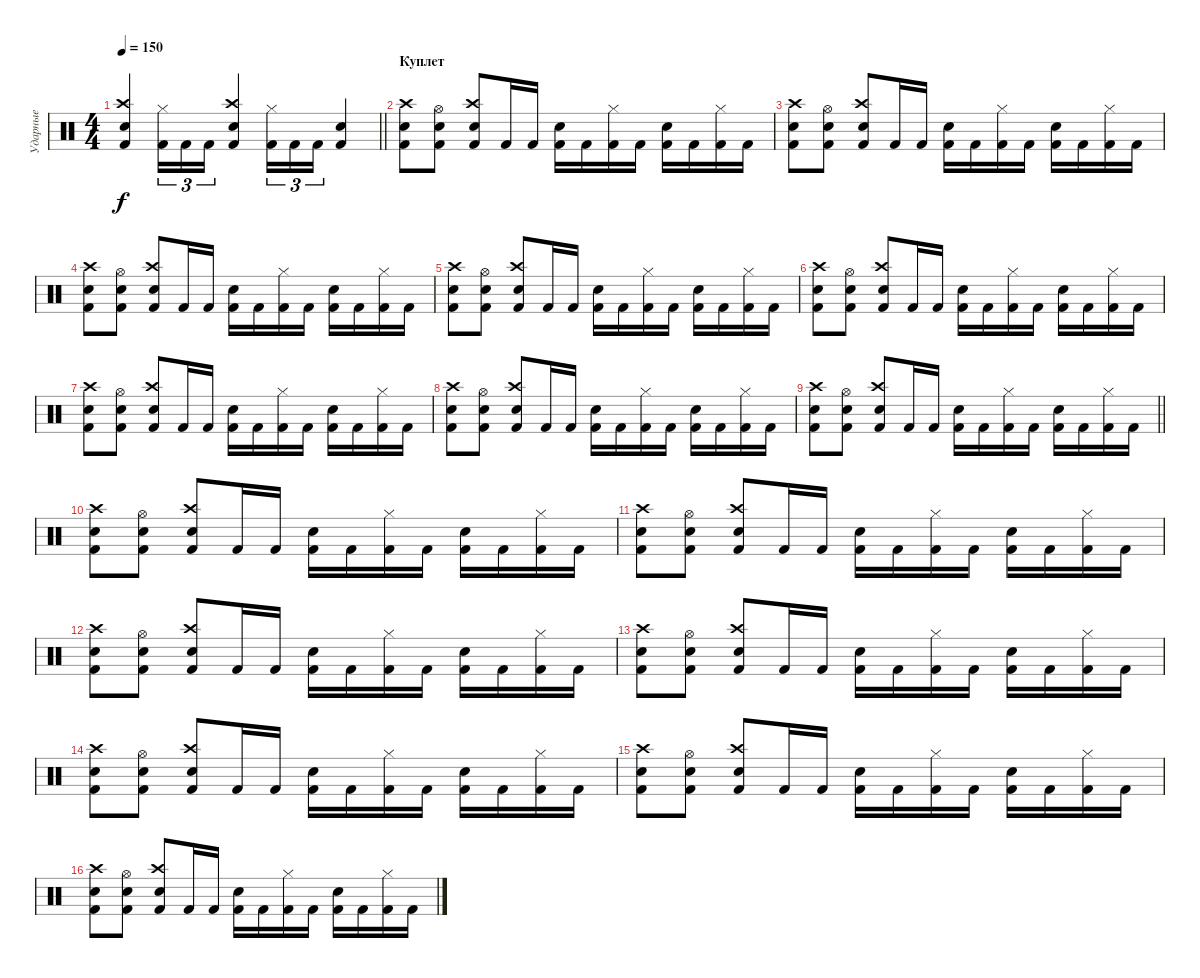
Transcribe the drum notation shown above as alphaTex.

\track ("Ударные" "Ударные") {instrument percussion}
\staff {score}
\articulation defaults
\ts (4 4)
\tempo 150
\clef neutral
\barLineRight lightlight
\ks c
("Kick (hit) 2" "Crash high (hit)" "Snare (hit) 2").4{dy f} ("Hi-Hat (closed)" "Kick (hit) 2").16{tu (3 2)} "Kick (hit) 2".16{tu (3 2)} "Kick (hit) 2".16{tu (3 2)} ("Crash high (hit)" "Snare (hit) 2" "Kick (hit) 2").4 ("Hi-Hat (closed)" "Kick (hit) 2").16{tu (3 2)} "Kick (hit) 2".16{tu (3 2)} "Kick (hit) 2".16{tu (3 2)} ("Snare (hit) 2" "Kick (hit) 2").4 |
\section ("" "Куплет")
("Snare (hit) 2" "Crash high (hit)" "Kick (hit) 2").8 ("Hi-Hat (open)" "Snare (hit) 2" "Kick (hit) 2").8 ("Kick (hit) 2" "Snare (hit) 2" "Crash high (hit)").8 "Kick (hit) 2".16 "Kick (hit) 2".16 ("Snare (hit) 2" "Kick (hit) 2").16 "Kick (hit) 2".16 ("Hi-Hat (closed)" "Kick (hit) 2").16 "Kick (hit) 2".16 ("Snare (hit) 2" "Kick (hit) 2").16 "Kick (hit) 2".16 ("Hi-Hat (closed)" "Kick (hit) 2").16 "Kick (hit) 2".16 |
("Snare (hit) 2" "Crash high (hit)" "Kick (hit) 2").8 ("Hi-Hat (open)" "Snare (hit) 2" "Kick (hit) 2").8 ("Kick (hit) 2" "Snare (hit) 2" "Crash high (hit)").8 "Kick (hit) 2".16 "Kick (hit) 2".16 ("Snare (hit) 2" "Kick (hit) 2").16 "Kick (hit) 2".16 ("Hi-Hat (closed)" "Kick (hit) 2").16 "Kick (hit) 2".16 ("Snare (hit) 2" "Kick (hit) 2").16 "Kick (hit) 2".16 ("Hi-Hat (closed)" "Kick (hit) 2").16 "Kick (hit) 2".16 |
("Snare (hit) 2" "Crash high (hit)" "Kick (hit) 2").8 ("Hi-Hat (open)" "Snare (hit) 2" "Kick (hit) 2").8 ("Kick (hit) 2" "Snare (hit) 2" "Crash high (hit)").8 "Kick (hit) 2".16 "Kick (hit) 2".16 ("Snare (hit) 2" "Kick (hit) 2").16 "Kick (hit) 2".16 ("Hi-Hat (closed)" "Kick (hit) 2").16 "Kick (hit) 2".16 ("Snare (hit) 2" "Kick (hit) 2").16 "Kick (hit) 2".16 ("Hi-Hat (closed)" "Kick (hit) 2").16 "Kick (hit) 2".16 |
("Snare (hit) 2" "Crash high (hit)" "Kick (hit) 2").8 ("Hi-Hat (open)" "Snare (hit) 2" "Kick (hit) 2").8 ("Kick (hit) 2" "Snare (hit) 2" "Crash high (hit)").8 "Kick (hit) 2".16 "Kick (hit) 2".16 ("Snare (hit) 2" "Kick (hit) 2").16 "Kick (hit) 2".16 ("Hi-Hat (closed)" "Kick (hit) 2").16 "Kick (hit) 2".16 ("Snare (hit) 2" "Kick (hit) 2").16 "Kick (hit) 2".16 ("Hi-Hat (closed)" "Kick (hit) 2").16 "Kick (hit) 2".16 |
("Snare (hit) 2" "Crash high (hit)" "Kick (hit) 2").8 ("Hi-Hat (open)" "Snare (hit) 2" "Kick (hit) 2").8 ("Kick (hit) 2" "Snare (hit) 2" "Crash high (hit)").8 "Kick (hit) 2".16 "Kick (hit) 2".16 ("Snare (hit) 2" "Kick (hit) 2").16 "Kick (hit) 2".16 ("Hi-Hat (closed)" "Kick (hit) 2").16 "Kick (hit) 2".16 ("Snare (hit) 2" "Kick (hit) 2").16 "Kick (hit) 2".16 ("Hi-Hat (closed)" "Kick (hit) 2").16 "Kick (hit) 2".16 |
("Snare (hit) 2" "Crash high (hit)" "Kick (hit) 2").8 ("Hi-Hat (open)" "Snare (hit) 2" "Kick (hit) 2").8 ("Kick (hit) 2" "Snare (hit) 2" "Crash high (hit)").8 "Kick (hit) 2".16 "Kick (hit) 2".16 ("Snare (hit) 2" "Kick (hit) 2").16 "Kick (hit) 2".16 ("Hi-Hat (closed)" "Kick (hit) 2").16 "Kick (hit) 2".16 ("Snare (hit) 2" "Kick (hit) 2").16 "Kick (hit) 2".16 ("Hi-Hat (closed)" "Kick (hit) 2").16 "Kick (hit) 2".16 |
("Snare (hit) 2" "Crash high (hit)" "Kick (hit) 2").8 ("Hi-Hat (open)" "Snare (hit) 2" "Kick (hit) 2").8 ("Kick (hit) 2" "Snare (hit) 2" "Crash high (hit)").8 "Kick (hit) 2".16 "Kick (hit) 2".16 ("Snare (hit) 2" "Kick (hit) 2").16 "Kick (hit) 2".16 ("Hi-Hat (closed)" "Kick (hit) 2").16 "Kick (hit) 2".16 ("Snare (hit) 2" "Kick (hit) 2").16 "Kick (hit) 2".16 ("Hi-Hat (closed)" "Kick (hit) 2").16 "Kick (hit) 2".16 |
\barLineRight lightlight
("Snare (hit) 2" "Crash high (hit)" "Kick (hit) 2").8 ("Hi-Hat (open)" "Snare (hit) 2" "Kick (hit) 2").8 ("Kick (hit) 2" "Snare (hit) 2" "Crash high (hit)").8 "Kick (hit) 2".16 "Kick (hit) 2".16 ("Snare (hit) 2" "Kick (hit) 2").16 "Kick (hit) 2".16 ("Hi-Hat (closed)" "Kick (hit) 2").16 "Kick (hit) 2".16 ("Snare (hit) 2" "Kick (hit) 2").16 "Kick (hit) 2".16 ("Hi-Hat (closed)" "Kick (hit) 2").16 "Kick (hit) 2".16 |
\section ("" " ")
("Snare (hit) 2" "Crash high (hit)" "Kick (hit) 2").8 ("Hi-Hat (open)" "Snare (hit) 2" "Kick (hit) 2").8 ("Kick (hit) 2" "Snare (hit) 2" "Crash high (hit)").8 "Kick (hit) 2".16 "Kick (hit) 2".16 ("Snare (hit) 2" "Kick (hit) 2").16 "Kick (hit) 2".16 ("Hi-Hat (closed)" "Kick (hit) 2").16 "Kick (hit) 2".16 ("Snare (hit) 2" "Kick (hit) 2").16 "Kick (hit) 2".16 ("Hi-Hat (closed)" "Kick (hit) 2").16 "Kick (hit) 2".16 |
("Snare (hit) 2" "Crash high (hit)" "Kick (hit) 2").8 ("Hi-Hat (open)" "Snare (hit) 2" "Kick (hit) 2").8 ("Kick (hit) 2" "Snare (hit) 2" "Crash high (hit)").8 "Kick (hit) 2".16 "Kick (hit) 2".16 ("Snare (hit) 2" "Kick (hit) 2").16 "Kick (hit) 2".16 ("Hi-Hat (closed)" "Kick (hit) 2").16 "Kick (hit) 2".16 ("Snare (hit) 2" "Kick (hit) 2").16 "Kick (hit) 2".16 ("Hi-Hat (closed)" "Kick (hit) 2").16 "Kick (hit) 2".16 |
("Snare (hit) 2" "Crash high (hit)" "Kick (hit) 2").8 ("Hi-Hat (open)" "Snare (hit) 2" "Kick (hit) 2").8 ("Kick (hit) 2" "Snare (hit) 2" "Crash high (hit)").8 "Kick (hit) 2".16 "Kick (hit) 2".16 ("Snare (hit) 2" "Kick (hit) 2").16 "Kick (hit) 2".16 ("Hi-Hat (closed)" "Kick (hit) 2").16 "Kick (hit) 2".16 ("Snare (hit) 2" "Kick (hit) 2").16 "Kick (hit) 2".16 ("Hi-Hat (closed)" "Kick (hit) 2").16 "Kick (hit) 2".16 |
("Snare (hit) 2" "Crash high (hit)" "Kick (hit) 2").8 ("Hi-Hat (open)" "Snare (hit) 2" "Kick (hit) 2").8 ("Kick (hit) 2" "Snare (hit) 2" "Crash high (hit)").8 "Kick (hit) 2".16 "Kick (hit) 2".16 ("Snare (hit) 2" "Kick (hit) 2").16 "Kick (hit) 2".16 ("Hi-Hat (closed)" "Kick (hit) 2").16 "Kick (hit) 2".16 ("Snare (hit) 2" "Kick (hit) 2").16 "Kick (hit) 2".16 ("Hi-Hat (closed)" "Kick (hit) 2").16 "Kick (hit) 2".16 |
("Snare (hit) 2" "Crash high (hit)" "Kick (hit) 2").8 ("Hi-Hat (open)" "Snare (hit) 2" "Kick (hit) 2").8 ("Kick (hit) 2" "Snare (hit) 2" "Crash high (hit)").8 "Kick (hit) 2".16 "Kick (hit) 2".16 ("Snare (hit) 2" "Kick (hit) 2").16 "Kick (hit) 2".16 ("Hi-Hat (closed)" "Kick (hit) 2").16 "Kick (hit) 2".16 ("Snare (hit) 2" "Kick (hit) 2").16 "Kick (hit) 2".16 ("Hi-Hat (closed)" "Kick (hit) 2").16 "Kick (hit) 2".16 |
("Snare (hit) 2" "Crash high (hit)" "Kick (hit) 2").8 ("Hi-Hat (open)" "Snare (hit) 2" "Kick (hit) 2").8 ("Kick (hit) 2" "Snare (hit) 2" "Crash high (hit)").8 "Kick (hit) 2".16 "Kick (hit) 2".16 ("Snare (hit) 2" "Kick (hit) 2").16 "Kick (hit) 2".16 ("Hi-Hat (closed)" "Kick (hit) 2").16 "Kick (hit) 2".16 ("Snare (hit) 2" "Kick (hit) 2").16 "Kick (hit) 2".16 ("Hi-Hat (closed)" "Kick (hit) 2").16 "Kick (hit) 2".16 |
("Snare (hit) 2" "Crash high (hit)" "Kick (hit) 2").8 ("Hi-Hat (open)" "Snare (hit) 2" "Kick (hit) 2").8 ("Kick (hit) 2" "Snare (hit) 2" "Crash high (hit)").8 "Kick (hit) 2".16 "Kick (hit) 2".16 ("Snare (hit) 2" "Kick (hit) 2").16 "Kick (hit) 2".16 ("Hi-Hat (closed)" "Kick (hit) 2").16 "Kick (hit) 2".16 ("Snare (hit) 2" "Kick (hit) 2").16 "Kick (hit) 2".16 ("Hi-Hat (closed)" "Kick (hit) 2").16 "Kick (hit) 2".16
